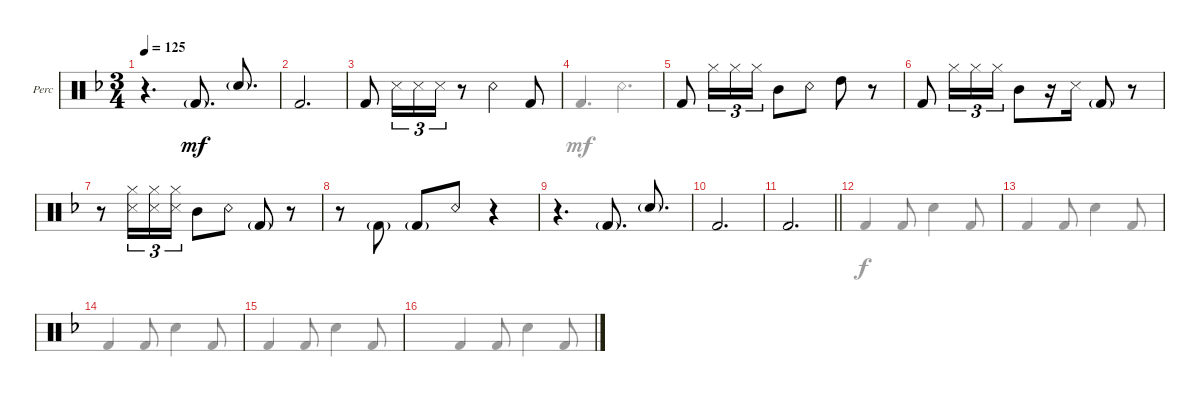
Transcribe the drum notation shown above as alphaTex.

\defaultSystemsLayout 4
\bracketExtendMode groupsimilarinstruments
\firstSystemTrackNameOrientation horizontal
\otherSystemsTrackNameOrientation horizontal
\track ("Body Percussion" "Perc") {instrument percussion}
\staff {score}
\articulation defaults
\voice
\ts (3 4)
\tempo 125
\clef neutral
\ks dminor
r.4{d dy mf beam Down} "Kick (hit) 2"{g acc forcenatural}.8{d beam Up} "Snare (hit) 2"{g acc forcenatural}.8{d beam Up} |
\scale
0.404882 "Kick (hit) 2"{acc forcenatural}.2{d beam Up} |
\scale
0.274671 "Kick (hit) 2"{acc forcenatural}.8{beam Up} "Snare (side stick) 3"{acc forcenatural}.16{tu (3 2) beam Down} "Snare (side stick) 3"{acc forcenatural}.16{tu (3 2) beam Down} "Snare (side stick) 3"{acc forcenatural}.16{tu (3 2) beam Down} r.8{beam Down} "Snare (rim shot)"{acc forcenatural}.4{beam Down} "Kick (hit) 2"{acc forcenatural}.8{beam Up} |
\scale
0.32045 |
"Kick (hit) 2"{acc forcenatural}.8{beam Up} "Hi-Hat (closed)"{acc forcenatural}.16{tu (3 2) beam Down} "Hi-Hat (closed)"{acc forcenatural}.16{tu (3 2) beam Down} "Hi-Hat (closed)"{acc forcenatural}.16{tu (3 2) beam Down} "Mid Tom (hit)"{acc forcenatural}.8{beam Down} "Snare (rim shot)"{acc forcenatural}.8{beam Down} "High Tom (hit)"{acc forcenatural}.8{beam Down} r.8{beam Down} |
"Kick (hit) 2"{acc forcenatural}.8{beam Up} "Hi-Hat (closed)"{acc forcenatural}.16{tu (3 2) beam Down} "Hi-Hat (closed)"{acc forcenatural}.16{tu (3 2) beam Down} "Hi-Hat (closed)"{acc forcenatural}.16{tu (3 2) beam Down} "Mid Tom (hit)"{acc forcenatural}.8{beam Down} r.16{beam Down} "Snare (side stick) 3"{acc forcenatural}.16{beam Up} "Kick (hit) 2"{g acc forcenatural}.8{beam Up} r.8{beam Up} |
r.8{beam Down} ("Hi-Hat (closed)"{acc forcenatural} "Snare (side stick) 3"{acc forcenatural}).16{tu (3 2) beam Down} ("Hi-Hat (closed)"{acc forcenatural} "Snare (side stick) 3"{acc forcenatural}).16{tu (3 2) beam Down} ("Hi-Hat (closed)"{acc forcenatural} "Snare (side stick) 3"{acc forcenatural}).16{tu (3 2) beam Down} "Mid Tom (hit)"{acc forcenatural}.8{beam Down} "Snare (rim shot)"{acc forcenatural}.8{beam Up} "Kick (hit) 2"{g acc forcenatural}.8{beam Up} r.8{beam Up} |
\scale
0.330735 r.8{beam Down} "Kick (hit) 2"{g acc forcenatural}.8{beam Up} "Kick (hit) 2"{g acc forcenatural}.8{beam Up} "Snare (rim shot)"{acc forcenatural}.8{beam Down} r.4{beam Down} |
\scale
0.669414 r.4{d beam Down} "Kick (hit) 2"{g acc forcenatural}.8{d beam Up} "Snare (hit) 2"{g acc forcenatural}.8{d beam Up} |
\scale
0.290646 "Kick (hit) 2"{acc forcenatural}.2{d beam Up} |
\scale
0.338566
\barLineRight lightlight "Kick (hit) 2"{acc forcenatural}.2{d beam Up}
|
\scale
0.431096 |
\scale
0.412544 |
\scale
0.608178 |
\scale
0.391761 |
\scale
0.430219
\voice
\clef neutral
\ottava regular
\simile none
\ks dminor
|
|
|
"Kick (hit) 2"{acc forcenatural}.4{d beam Up} "Snare (rim shot)"{acc forcenatural}.4{d beam Down} |
|
|
|
|
|
|
\barLineRight lightlight
|
"Kick (hit) 2"{acc forcenatural}.4{dy f beam Up} "Kick (hit) 2"{acc forcenatural}.8{beam Up} "Snare (hit) 2"{acc forcenatural}.4{beam Down} "Kick (hit) 2"{acc forcenatural}.8{beam Up} |
"Kick (hit) 2"{acc forcenatural}.4{beam Up} "Kick (hit) 2"{acc forcenatural}.8{beam Up} "Snare (hit) 2"{acc forcenatural}.4{beam Down} "Kick (hit) 2"{acc forcenatural}.8{beam Up} |
"Kick (hit) 2"{acc forcenatural}.4{beam Up} "Kick (hit) 2"{acc forcenatural}.8{beam Up} "Snare (hit) 2"{acc forcenatural}.4{beam Down} "Kick (hit) 2"{acc forcenatural}.8{beam Up} |
"Kick (hit) 2"{acc forcenatural}.4{beam Up} "Kick (hit) 2"{acc forcenatural}.8{beam Up} "Snare (hit) 2"{acc forcenatural}.4{beam Down} "Kick (hit) 2"{acc forcenatural}.8{beam Up} |
"Kick (hit) 2"{acc forcenatural}.4{beam Up} "Kick (hit) 2"{acc forcenatural}.8{beam Up} "Snare (hit) 2"{acc forcenatural}.4{beam Down} "Kick (hit) 2"{acc forcenatural}.8{beam Up}
